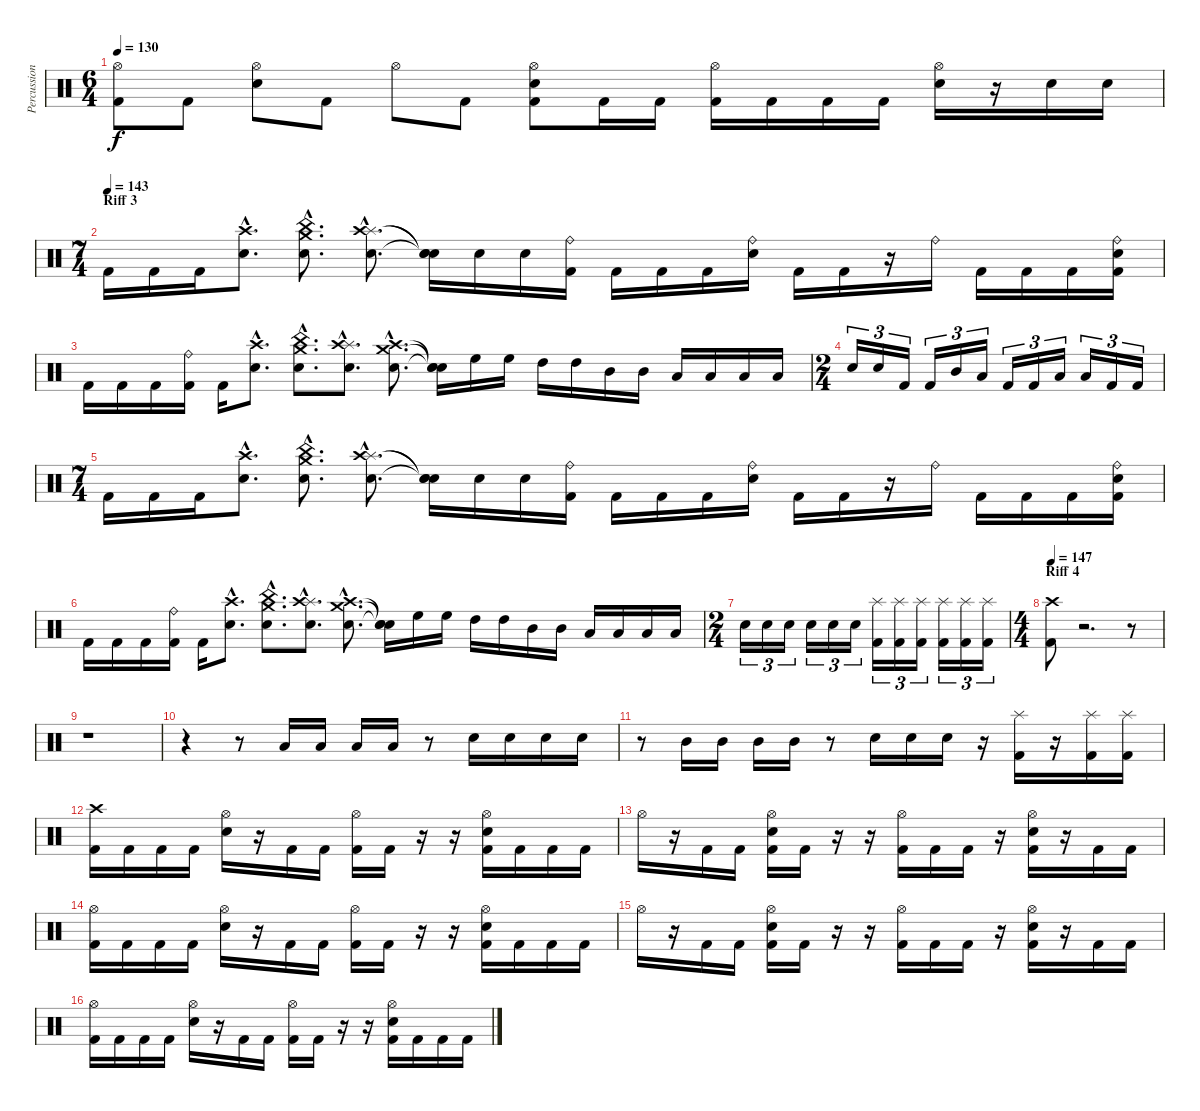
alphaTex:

\track ("Percussion" "Percussion") {instrument percussion}
\staff {score}
\articulation defaults
\ts (6 4)
\tempo 130
\clef neutral
\ks c
("Hi-Hat (open)" "Kick (hit) 2").8{dy f} "Kick (hit) 2".8 ("Hi-Hat (open)" "Electric Snare (hit)").8 "Kick (hit) 2".8 "Hi-Hat (open)".8 "Kick (hit) 2".8 ("Hi-Hat (open)" "Electric Snare (hit)" "Kick (hit) 2").8 "Kick (hit) 2".16 "Kick (hit) 2".16 ("Hi-Hat (open)" "Kick (hit) 2").16 "Kick (hit) 2".16 "Kick (hit) 2".16 "Kick (hit) 2".16 ("Hi-Hat (open)" "Electric Snare (hit)").16 r.16 "Electric Snare (hit)".16 "Electric Snare (hit)".16 |
\ts (7 4)
\section ("" "Riff 3")
\tempo (143)
"Kick (hit) 2".16 "Kick (hit) 2".16 "Kick (hit) 2".16 ("Crash high (hit)"{hac} "Electric Snare (hit)"{hac}).8{d} ("China (hit)"{hac} "Crash medium (hit)"{hac} "Electric Snare (hit)"{hac}).8{d} ("Splash (hit)"{hac} "Crash high (hit)"{hac} "Electric Snare (hit)"{hac}).8{d} ("Snare (hit)"{t} "Snare (hit)"{t} "Snare (hit)"{t}).16 "Electric Snare (hit)".16 "Electric Snare (hit)".16 ("Ride (bell)" "Kick (hit) 2").16 "Kick (hit) 2".16 "Kick (hit) 2".16 "Kick (hit) 2".16 ("Ride (bell)" "Electric Snare (hit)").16 "Kick (hit) 2".16 "Kick (hit) 2".16 r.16 "Ride (bell)".16 "Kick (hit) 2".16 "Kick (hit) 2".16 "Kick (hit) 2".16 ("Ride (bell)" "Electric Snare (hit)" "Kick (hit) 2").16 |
"Kick (hit) 2".16 "Kick (hit) 2".16 "Kick (hit) 2".16 ("Ride (bell)" "Kick (hit) 2").16 "Kick (hit) 2".16 ("Crash high (hit)"{hac} "Electric Snare (hit)"{hac}).8{d} ("China (hit)"{hac} "Crash medium (hit)"{hac} "Electric Snare (hit)"{hac}).8{d} ("Splash (hit)"{hac} "Crash high (hit)"{hac} "Electric Snare (hit)"{hac}).8{d} ("Crash medium (hit)"{hac} "Crash high (hit)"{hac} "Electric Snare (hit)"{hac}).8{d} ("Snare (hit)"{t} "Snare (hit)"{t} "Snare (hit)"{t}).16 "High Floor Tom (hit)".16 "High Floor Tom (hit)".16 "High Tom (hit)".16 "High Tom (hit)".16 "Mid Tom (hit)".16 "Mid Tom (hit)".16 "Low Tom (hit)".16 "Low Tom (hit)".16 "Low Floor Tom (hit)".16 "Low Floor Tom (hit)".16 |
\ts (2 4)
"Electric Snare (hit)".16{tu (3 2)} "Electric Snare (hit)".16{tu (3 2)} "Kick (hit) 2".16{tu (3 2)} "Kick (hit) 2".16{tu (3 2)} "Mid Tom (hit)".16{tu (3 2)} "Low Tom (hit)".16{tu (3 2)} "Kick (hit) 2".16{tu (3 2)} "Kick (hit) 2".16{tu (3 2)} "Low Tom (hit)".16{tu (3 2)} "Low Floor Tom (hit)".16{tu (3 2)} "Kick (hit) 2".16{tu (3 2)} "Kick (hit) 2".16{tu (3 2)} |
\ts (7 4)
"Kick (hit) 2".16 "Kick (hit) 2".16 "Kick (hit) 2".16 ("Crash high (hit)"{hac} "Electric Snare (hit)"{hac}).8{d} ("China (hit)"{hac} "Crash medium (hit)"{hac} "Electric Snare (hit)"{hac}).8{d} ("Splash (hit)"{hac} "Crash high (hit)"{hac} "Electric Snare (hit)"{hac}).8{d} ("Snare (hit)"{t} "Snare (hit)"{t} "Snare (hit)"{t}).16 "Electric Snare (hit)".16 "Electric Snare (hit)".16 ("Ride (bell)" "Kick (hit) 2").16 "Kick (hit) 2".16 "Kick (hit) 2".16 "Kick (hit) 2".16 ("Ride (bell)" "Electric Snare (hit)").16 "Kick (hit) 2".16 "Kick (hit) 2".16 r.16 "Ride (bell)".16 "Kick (hit) 2".16 "Kick (hit) 2".16 "Kick (hit) 2".16 ("Ride (bell)" "Electric Snare (hit)" "Kick (hit) 2").16 |
"Kick (hit) 2".16 "Kick (hit) 2".16 "Kick (hit) 2".16 ("Ride (bell)" "Kick (hit) 2").16 "Kick (hit) 2".16 ("Crash high (hit)"{hac} "Electric Snare (hit)"{hac}).8{d} ("China (hit)"{hac} "Crash medium (hit)"{hac} "Electric Snare (hit)"{hac}).8{d} ("Splash (hit)"{hac} "Crash high (hit)"{hac} "Electric Snare (hit)"{hac}).8{d} ("Crash medium (hit)"{hac} "Crash high (hit)"{hac} "Electric Snare (hit)"{hac}).8{d} ("Snare (hit)"{t} "Snare (hit)"{t} "Snare (hit)"{t}).16 "High Floor Tom (hit)".16 "High Floor Tom (hit)".16 "High Tom (hit)".16 "High Tom (hit)".16 "Mid Tom (hit)".16 "Mid Tom (hit)".16 "Low Tom (hit)".16 "Low Tom (hit)".16 "Low Floor Tom (hit)".16 "Low Floor Tom (hit)".16 |
\ts (2 4)
"Electric Snare (hit)".16{tu (3 2)} "Electric Snare (hit)".16{tu (3 2)} "Electric Snare (hit)".16{tu (3 2)} "Electric Snare (hit)".16{tu (3 2)} "Electric Snare (hit)".16{tu (3 2)} "Electric Snare (hit)".16{tu (3 2)} ("Splash (hit)" "Kick (hit) 2").16{tu (3 2)} ("Splash (hit)" "Kick (hit) 2").16{tu (3 2)} ("Splash (hit)" "Kick (hit) 2").16{tu (3 2)} ("Splash (hit)" "Kick (hit) 2").16{tu (3 2)} ("Splash (hit)" "Kick (hit) 2").16{tu (3 2)} ("Splash (hit)" "Kick (hit) 2").16{tu (3 2)} |
\ts (4 4)
\section ("" "Riff 4")
\tempo 147
("Crash high (hit)" "Kick (hit) 2").8 r.2{d} r.8 |
r.1 |
r.4 r.8 "Low Tom (hit)".16 "Low Tom (hit)".16 "Low Tom (hit)".16 "Low Tom (hit)".16 r.8 "Electric Snare (hit)".16 "Electric Snare (hit)".16 "Electric Snare (hit)".16 "Electric Snare (hit)".16 |
r.8 "Mid Tom (hit)".16 "Mid Tom (hit)".16 "Mid Tom (hit)".16 "Mid Tom (hit)".16 r.8 "Electric Snare (hit)".16 "Electric Snare (hit)".16 "Electric Snare (hit)".16 r.16 ("Splash (hit)" "Kick (hit) 2").16 r.16 ("Splash (hit)" "Kick (hit) 2").16 ("Splash (hit)" "Kick (hit) 2").16 |
("Crash high (hit)" "Kick (hit) 2").16 "Kick (hit) 2".16 "Kick (hit) 2".16 "Kick (hit) 2".16 ("Hi-Hat (open)" "Electric Snare (hit)").16 r.16 "Kick (hit) 2".16 "Kick (hit) 2".16 ("Hi-Hat (open)" "Kick (hit) 2").16 "Kick (hit) 2".16 r.16 r.16 ("Hi-Hat (open)" "Electric Snare (hit)" "Kick (hit) 2").16 "Kick (hit) 2".16 "Kick (hit) 2".16 "Kick (hit) 2".16 |
"Hi-Hat (open)".16 r.16 "Kick (hit) 2".16 "Kick (hit) 2".16 ("Hi-Hat (open)" "Electric Snare (hit)" "Kick (hit) 2").16 "Kick (hit) 2".16 r.16 r.16 ("Hi-Hat (open)" "Kick (hit) 2").16 "Kick (hit) 2".16 "Kick (hit) 2".16 r.16 ("Hi-Hat (open)" "Electric Snare (hit)" "Kick (hit) 2").16 r.16 "Kick (hit) 2".16 "Kick (hit) 2".16 |
("Hi-Hat (open)" "Kick (hit) 2").16 "Kick (hit) 2".16 "Kick (hit) 2".16 "Kick (hit) 2".16 ("Hi-Hat (open)" "Electric Snare (hit)").16 r.16 "Kick (hit) 2".16 "Kick (hit) 2".16 ("Hi-Hat (open)" "Kick (hit) 2").16 "Kick (hit) 2".16 r.16 r.16 ("Hi-Hat (open)" "Electric Snare (hit)" "Kick (hit) 2").16 "Kick (hit) 2".16 "Kick (hit) 2".16 "Kick (hit) 2".16 |
"Hi-Hat (open)".16 r.16 "Kick (hit) 2".16 "Kick (hit) 2".16 ("Hi-Hat (open)" "Electric Snare (hit)" "Kick (hit) 2").16 "Kick (hit) 2".16 r.16 r.16 ("Hi-Hat (open)" "Kick (hit) 2").16 "Kick (hit) 2".16 "Kick (hit) 2".16 r.16 ("Hi-Hat (open)" "Electric Snare (hit)" "Kick (hit) 2").16 r.16 "Kick (hit) 2".16 "Kick (hit) 2".16 |
("Hi-Hat (open)" "Kick (hit) 2").16 "Kick (hit) 2".16 "Kick (hit) 2".16 "Kick (hit) 2".16 ("Hi-Hat (open)" "Electric Snare (hit)").16 r.16 "Kick (hit) 2".16 "Kick (hit) 2".16 ("Hi-Hat (open)" "Kick (hit) 2").16 "Kick (hit) 2".16 r.16 r.16 ("Hi-Hat (open)" "Electric Snare (hit)" "Kick (hit) 2").16 "Kick (hit) 2".16 "Kick (hit) 2".16 "Kick (hit) 2".16
